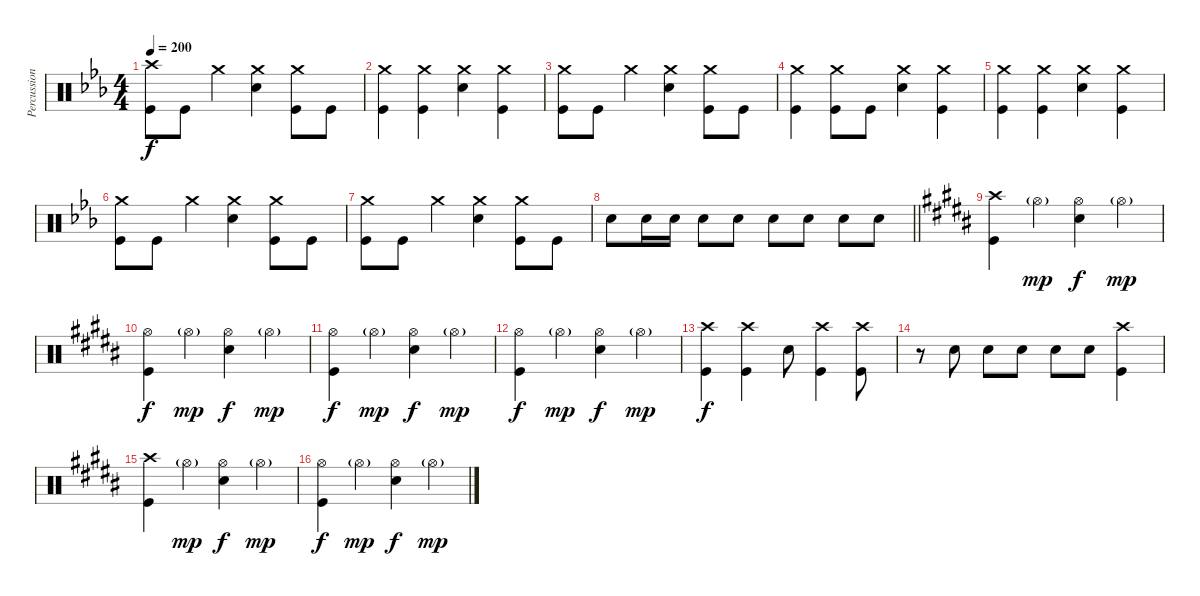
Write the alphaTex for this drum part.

\track ("Percussion" "Percussion") {instrument percussion}
\staff {score}
\articulation defaults
\ts (4 4)
\tempo 200
\clef neutral
\ks eb
("Crash high (hit)" "Kick (hit)").8{dy f} "Kick (hit)".8 "Crash medium (hit)".4 ("Crash medium (hit)" "Snare (hit) 2").4 ("Crash medium (hit)" "Kick (hit)").8 "Kick (hit)".8 |
("Crash medium (hit)" "Kick (hit)").4 ("Crash medium (hit)" "Kick (hit)").4 ("Crash medium (hit)" "Snare (hit) 2").4 ("Crash medium (hit)" "Kick (hit)").4 |
("Crash medium (hit)" "Kick (hit)").8 "Kick (hit)".8 "Crash medium (hit)".4 ("Crash medium (hit)" "Snare (hit) 2").4 ("Crash medium (hit)" "Kick (hit)").8 "Kick (hit)".8 |
("Crash medium (hit)" "Kick (hit)").4 ("Crash medium (hit)" "Kick (hit)").8 "Kick (hit)".8 ("Crash medium (hit)" "Snare (hit) 2").4 ("Crash medium (hit)" "Kick (hit)").4 |
("Crash medium (hit)" "Kick (hit)").4 ("Crash medium (hit)" "Kick (hit)").4 ("Crash medium (hit)" "Snare (hit) 2").4 ("Crash medium (hit)" "Kick (hit)").4 |
("Crash medium (hit)" "Kick (hit)").8 "Kick (hit)".8 "Crash medium (hit)".4 ("Crash medium (hit)" "Snare (hit) 2").4 ("Crash medium (hit)" "Kick (hit)").8 "Kick (hit)".8 |
("Crash medium (hit)" "Kick (hit)").8 "Kick (hit)".8 "Crash medium (hit)".4 ("Crash medium (hit)" "Snare (hit) 2").4 ("Crash medium (hit)" "Kick (hit)").8 "Kick (hit)".8 |
\barLineRight lightlight "Snare (hit) 2".8 "Snare (hit) 2".16 "Snare (hit) 2".16 "Snare (hit) 2".8 "Snare (hit) 2".8 "Snare (hit) 2".8 "Snare (hit) 2".8 "Snare (hit) 2".8 "Snare (hit) 2".8
|
\ks b
("Crash high (hit)" "Kick (hit)").4{volume 16} "Hi-Hat (open)"{g}.4{dy mp} ("Hi-Hat (open)" "Snare (hit) 2").4{dy f} "Hi-Hat (open)"{g}.4{dy mp} |
("Hi-Hat (open)" "Kick (hit)").4{dy f} "Hi-Hat (open)"{g}.4{dy mp} ("Hi-Hat (open)" "Snare (hit) 2").4{dy f} "Hi-Hat (open)"{g}.4{dy mp} |
("Hi-Hat (open)" "Kick (hit)").4{dy f} "Hi-Hat (open)"{g}.4{dy mp} ("Hi-Hat (open)" "Snare (hit) 2").4{dy f} "Hi-Hat (open)"{g}.4{dy mp} |
("Hi-Hat (open)" "Kick (hit)").4{dy f} "Hi-Hat (open)"{g}.4{dy mp} ("Hi-Hat (open)" "Snare (hit) 2").4{dy f} "Hi-Hat (open)"{g}.4{dy mp} |
("Crash high (hit)" "Kick (hit)").4{dy f} ("Crash high (hit)" "Kick (hit)").4 "Snare (hit) 2".8 ("Crash high (hit)" "Kick (hit)").4 ("Crash high (hit)" "Kick (hit)").8 |
r.8 "Snare (hit) 2".8 "Snare (hit) 2".8 "Snare (hit) 2".8 "Snare (hit) 2".8 "Snare (hit) 2".8 ("Crash high (hit)" "Kick (hit)").4 |
("Crash high (hit)" "Kick (hit)").4{volume 16} "Hi-Hat (open)"{g}.4{dy mp} ("Hi-Hat (open)" "Snare (hit) 2").4{dy f} "Hi-Hat (open)"{g}.4{dy mp} |
("Hi-Hat (open)" "Kick (hit)").4{dy f} "Hi-Hat (open)"{g}.4{dy mp} ("Hi-Hat (open)" "Snare (hit) 2").4{dy f} "Hi-Hat (open)"{g}.4{dy mp}
